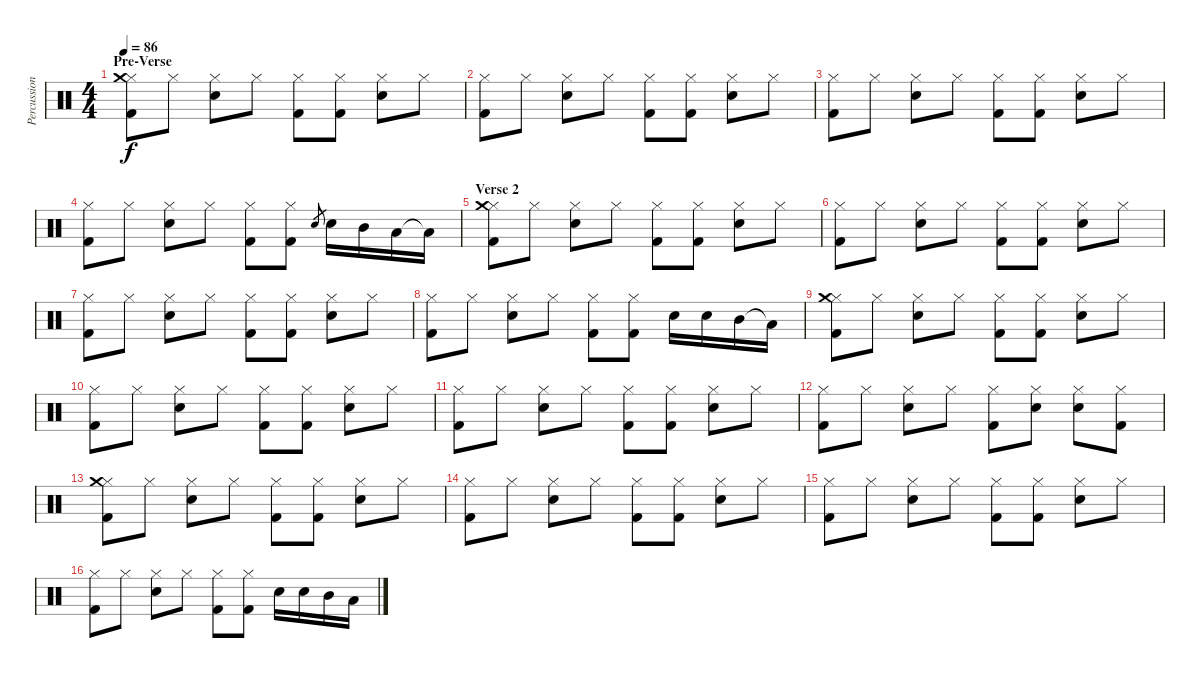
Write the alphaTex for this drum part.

\track ("Percussion" "Percussion") {instrument percussion}
\staff {score}
\articulation defaults
\ts (4 4)
\section ("" "Pre-Verse")
\tempo 86
\clef neutral
\ks c
("Kick (hit) 2" "Hi-Hat (closed)" "Crash medium (hit)").8{dy f} "Hi-Hat (closed)".8 ("Electric Snare (hit)" "Hi-Hat (closed)").8 "Hi-Hat (closed)".8 ("Kick (hit) 2" "Hi-Hat (closed)").8 ("Kick (hit) 2" "Hi-Hat (closed)").8 ("Electric Snare (hit)" "Hi-Hat (closed)").8 "Hi-Hat (closed)".8 |
("Kick (hit) 2" "Hi-Hat (closed)").8 "Hi-Hat (closed)".8 ("Electric Snare (hit)" "Hi-Hat (closed)").8 "Hi-Hat (closed)".8 ("Kick (hit) 2" "Hi-Hat (closed)").8 ("Kick (hit) 2" "Hi-Hat (closed)").8 ("Electric Snare (hit)" "Hi-Hat (closed)").8 "Hi-Hat (closed)".8 |
("Kick (hit) 2" "Hi-Hat (closed)").8 "Hi-Hat (closed)".8 ("Electric Snare (hit)" "Hi-Hat (closed)").8 "Hi-Hat (closed)".8 ("Kick (hit) 2" "Hi-Hat (closed)").8 ("Kick (hit) 2" "Hi-Hat (closed)").8 ("Electric Snare (hit)" "Hi-Hat (closed)").8 "Hi-Hat (closed)".8 |
("Kick (hit) 2" "Hi-Hat (closed)").8 "Hi-Hat (closed)".8 ("Electric Snare (hit)" "Hi-Hat (closed)").8 "Hi-Hat (closed)".8 ("Kick (hit) 2" "Hi-Hat (closed)").8 ("Kick (hit) 2" "Hi-Hat (closed)").8 "Electric Snare (hit)".8{gr} "Electric Snare (hit)".16 "Mid Tom (hit)".16 "Low Tom (hit)".16 "Low Tom (hit)"{t}.16 |
\section ("" "Verse 2")
("Kick (hit) 2" "Hi-Hat (closed)" "Crash medium (hit)").8 "Hi-Hat (closed)".8 ("Electric Snare (hit)" "Hi-Hat (closed)").8 "Hi-Hat (closed)".8 ("Kick (hit) 2" "Hi-Hat (closed)").8 ("Kick (hit) 2" "Hi-Hat (closed)").8 ("Electric Snare (hit)" "Hi-Hat (closed)").8 "Hi-Hat (closed)".8 |
("Kick (hit) 2" "Hi-Hat (closed)").8 "Hi-Hat (closed)".8 ("Electric Snare (hit)" "Hi-Hat (closed)").8 "Hi-Hat (closed)".8 ("Kick (hit) 2" "Hi-Hat (closed)").8 ("Kick (hit) 2" "Hi-Hat (closed)").8 ("Electric Snare (hit)" "Hi-Hat (closed)").8 "Hi-Hat (closed)".8 |
("Kick (hit) 2" "Hi-Hat (closed)").8 "Hi-Hat (closed)".8 ("Electric Snare (hit)" "Hi-Hat (closed)").8 "Hi-Hat (closed)".8 ("Kick (hit) 2" "Hi-Hat (closed)").8 ("Kick (hit) 2" "Hi-Hat (closed)").8 ("Electric Snare (hit)" "Hi-Hat (closed)").8 "Hi-Hat (closed)".8 |
("Kick (hit) 2" "Hi-Hat (closed)").8 "Hi-Hat (closed)".8 ("Electric Snare (hit)" "Hi-Hat (closed)").8 "Hi-Hat (closed)".8 ("Kick (hit) 2" "Hi-Hat (closed)").8 ("Kick (hit) 2" "Hi-Hat (closed)").8 "Electric Snare (hit)".16 "Electric Snare (hit)".16 "Mid Tom (hit)".16 "Low Tom (hit)"{t}.16 |
("Kick (hit) 2" "Hi-Hat (closed)" "Crash medium (hit)").8 "Hi-Hat (closed)".8 ("Electric Snare (hit)" "Hi-Hat (closed)").8 "Hi-Hat (closed)".8 ("Kick (hit) 2" "Hi-Hat (closed)").8 ("Kick (hit) 2" "Hi-Hat (closed)").8 ("Electric Snare (hit)" "Hi-Hat (closed)").8 "Hi-Hat (closed)".8 |
("Kick (hit) 2" "Hi-Hat (closed)").8 "Hi-Hat (closed)".8 ("Electric Snare (hit)" "Hi-Hat (closed)").8 "Hi-Hat (closed)".8 ("Kick (hit) 2" "Hi-Hat (closed)").8 ("Kick (hit) 2" "Hi-Hat (closed)").8 ("Electric Snare (hit)" "Hi-Hat (closed)").8 "Hi-Hat (closed)".8 |
("Kick (hit) 2" "Hi-Hat (closed)").8 "Hi-Hat (closed)".8 ("Electric Snare (hit)" "Hi-Hat (closed)").8 "Hi-Hat (closed)".8 ("Kick (hit) 2" "Hi-Hat (closed)").8 ("Kick (hit) 2" "Hi-Hat (closed)").8 ("Electric Snare (hit)" "Hi-Hat (closed)").8 "Hi-Hat (closed)".8 |
("Kick (hit) 2" "Hi-Hat (closed)").8 "Hi-Hat (closed)".8 ("Electric Snare (hit)" "Hi-Hat (closed)").8 "Hi-Hat (closed)".8 ("Kick (hit) 2" "Hi-Hat (closed)").8 ("Electric Snare (hit)" "Hi-Hat (closed)").8 ("Electric Snare (hit)" "Hi-Hat (closed)").8 ("Kick (hit) 2" "Hi-Hat (closed)").8 |
("Kick (hit) 2" "Hi-Hat (closed)" "Crash medium (hit)").8 "Hi-Hat (closed)".8 ("Electric Snare (hit)" "Hi-Hat (closed)").8 "Hi-Hat (closed)".8 ("Kick (hit) 2" "Hi-Hat (closed)").8 ("Kick (hit) 2" "Hi-Hat (closed)").8 ("Electric Snare (hit)" "Hi-Hat (closed)").8 "Hi-Hat (closed)".8 |
("Kick (hit) 2" "Hi-Hat (closed)").8 "Hi-Hat (closed)".8 ("Electric Snare (hit)" "Hi-Hat (closed)").8 "Hi-Hat (closed)".8 ("Kick (hit) 2" "Hi-Hat (closed)").8 ("Kick (hit) 2" "Hi-Hat (closed)").8 ("Electric Snare (hit)" "Hi-Hat (closed)").8 "Hi-Hat (closed)".8 |
("Kick (hit) 2" "Hi-Hat (closed)").8 "Hi-Hat (closed)".8 ("Electric Snare (hit)" "Hi-Hat (closed)").8 "Hi-Hat (closed)".8 ("Kick (hit) 2" "Hi-Hat (closed)").8 ("Kick (hit) 2" "Hi-Hat (closed)").8 ("Electric Snare (hit)" "Hi-Hat (closed)").8 "Hi-Hat (closed)".8 |
("Kick (hit) 2" "Hi-Hat (closed)").8 "Hi-Hat (closed)".8 ("Electric Snare (hit)" "Hi-Hat (closed)").8 "Hi-Hat (closed)".8 ("Kick (hit) 2" "Hi-Hat (closed)").8 ("Kick (hit) 2" "Hi-Hat (closed)").8 "Electric Snare (hit)".16 "Electric Snare (hit)".16 "Mid Tom (hit)".16 "Low Tom (hit)".16
